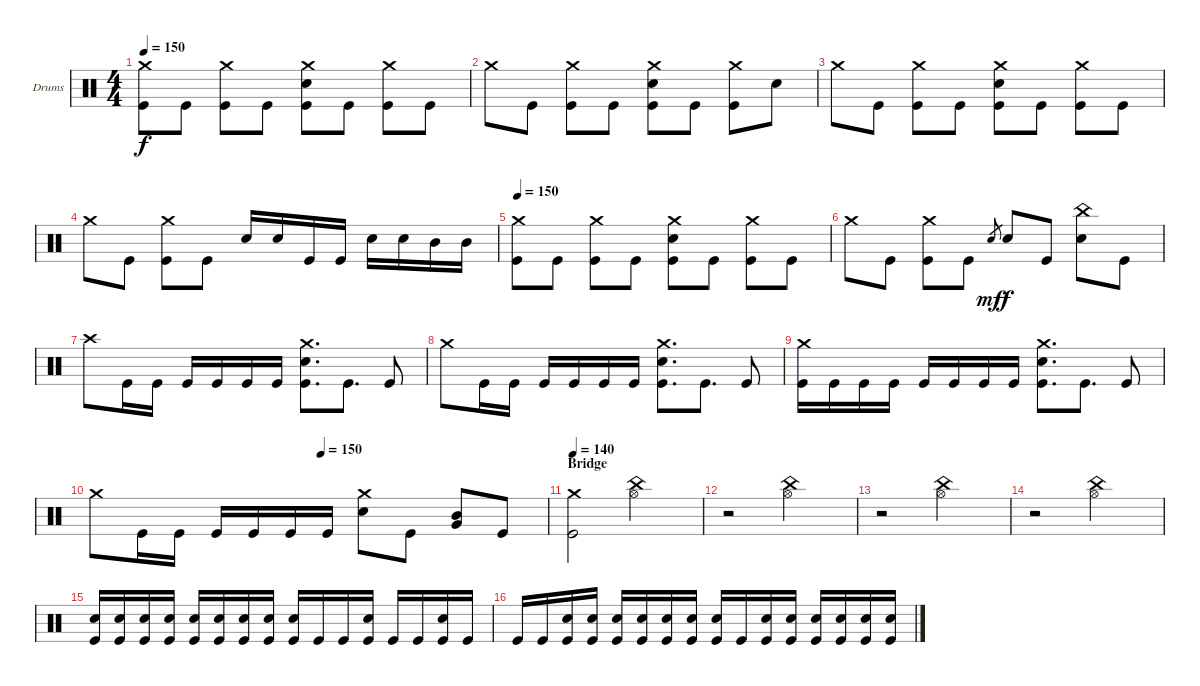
\bracketExtendMode groupsimilarinstruments
\firstSystemTrackNameOrientation horizontal
\otherSystemsTrackNameOrientation horizontal
\track ("Drumkit" "Drums") {instrument percussion}
\staff {score}
\articulation defaults
\ts (4 4)
\tempo 150
\clef neutral
\ks c
("Crash medium (hit)" "Kick (hit)").8{dy f} "Kick (hit)".8 ("Crash medium (hit)" "Kick (hit)").8 "Kick (hit)".8 ("Crash medium (hit)" "Snare (hit) 2" "Kick (hit)").8 "Kick (hit)".8 ("Crash medium (hit)" "Kick (hit)").8 "Kick (hit)".8 |
"Crash medium (hit)".8 "Kick (hit)".8 ("Crash medium (hit)" "Kick (hit)").8 "Kick (hit)".8 ("Crash medium (hit)" "Snare (hit) 2" "Kick (hit)").8 "Kick (hit)".8 ("Crash medium (hit)" "Kick (hit)").8 "Snare (hit) 2".8 |
"Crash medium (hit)".8 "Kick (hit)".8 ("Crash medium (hit)" "Kick (hit)").8 "Kick (hit)".8 ("Crash medium (hit)" "Snare (hit) 2" "Kick (hit)").8 "Kick (hit)".8 ("Crash medium (hit)" "Kick (hit)").8 "Kick (hit)".8 |
"Crash medium (hit)".8 "Kick (hit)".8 ("Crash medium (hit)" "Kick (hit)").8 "Kick (hit)".8 "Snare (hit) 2".16 "Snare (hit) 2".16 "Kick (hit)".16 "Kick (hit)".16 "Snare (hit) 2".16 "Snare (hit) 2".16 "Mid Tom (hit)".16 "Mid Tom (hit)".16 |
\tempo 150
("Crash medium (hit)" "Kick (hit)").8 "Kick (hit)".8 ("Crash medium (hit)" "Kick (hit)").8 "Kick (hit)".8 ("Crash medium (hit)" "Snare (hit) 2" "Kick (hit)").8 "Kick (hit)".8 ("Crash medium (hit)" "Kick (hit)").8 "Kick (hit)".8 |
"Crash medium (hit)".8 "Kick (hit)".8 ("Crash medium (hit)" "Kick (hit)").8 "Kick (hit)".8 "Snare (hit) 2".8{gr dy mf} "Snare (hit) 2".8{dy f} "Kick (hit)".8 ("China (hit)" "Snare (hit) 2").8 "Kick (hit)".8 |
"Crash high (hit)".8 "Kick (hit)".16 "Kick (hit)".16 "Kick (hit)".16 "Kick (hit)".16 "Kick (hit)".16 "Kick (hit)".16 ("Crash medium (hit)" "Snare (hit) 2" "Kick (hit)").8{d} "Kick (hit)".8{d} "Kick (hit)".8 |
"Crash medium (hit)".8 "Kick (hit)".16 "Kick (hit)".16 "Kick (hit)".16 "Kick (hit)".16 "Kick (hit)".16 "Kick (hit)".16 ("Crash medium (hit)" "Snare (hit) 2" "Kick (hit)").8{d} "Kick (hit)".8{d} "Kick (hit)".8 |
("Crash medium (hit)" "Kick (hit)").16 "Kick (hit)".16 "Kick (hit)".16 "Kick (hit)".16 "Kick (hit)".16 "Kick (hit)".16 "Kick (hit)".16 "Kick (hit)".16 ("Crash medium (hit)" "Snare (hit) 2" "Kick (hit)").8{d} "Kick (hit)".8{d} "Kick (hit)".8 |
\tempo (150 0.5)
"Crash medium (hit)".8 "Kick (hit)".16 "Kick (hit)".16 "Kick (hit)".16 "Kick (hit)".16 "Kick (hit)".16 "Kick (hit)".16 ("Crash medium (hit)" "Snare (hit) 2").8 "Kick (hit)".8 ("Mid Tom (hit)" "Very Low Tom (hit)").8 "Kick (hit)".8 |
\section ("" "Bridge")
\tempo 140
("Crash medium (hit)" "Kick (hit)").2 ("China (hit)" "Hi-Hat (open)").2 |
r.2 ("China (hit)" "Hi-Hat (open)").2 |
r.2 ("China (hit)" "Hi-Hat (open)").2 |
r.2 ("China (hit)" "Hi-Hat (open)").2 |
("Snare (hit) 2" "Kick (hit)").16 ("Snare (hit) 2" "Kick (hit)").16 ("Snare (hit) 2" "Kick (hit)").16 ("Snare (hit) 2" "Kick (hit)").16 ("Snare (hit) 2" "Kick (hit)").16 ("Snare (hit) 2" "Kick (hit)").16 ("Snare (hit) 2" "Kick (hit)").16 ("Snare (hit) 2" "Kick (hit)").16 ("Snare (hit) 2" "Kick (hit)").16 "Kick (hit)".16 "Kick (hit)".16 ("Snare (hit) 2" "Kick (hit)").16 "Kick (hit)".16 "Kick (hit)".16 ("Snare (hit) 2" "Kick (hit)").16 "Kick (hit)".16 |
"Kick (hit)".16 "Kick (hit)".16 ("Snare (hit) 2" "Kick (hit)").16 ("Snare (hit) 2" "Kick (hit)").16 ("Snare (hit) 2" "Kick (hit)").16 ("Snare (hit) 2" "Kick (hit)").16 ("Snare (hit) 2" "Kick (hit)").16 ("Snare (hit) 2" "Kick (hit)").16 ("Snare (hit) 2" "Kick (hit)").16 "Kick (hit)".16 ("Snare (hit) 2" "Kick (hit)").16 ("Snare (hit) 2" "Kick (hit)").16 ("Snare (hit) 2" "Kick (hit)").16 ("Snare (hit) 2" "Kick (hit)").16 ("Snare (hit) 2" "Kick (hit)").16 ("Snare (hit) 2" "Kick (hit)").16
